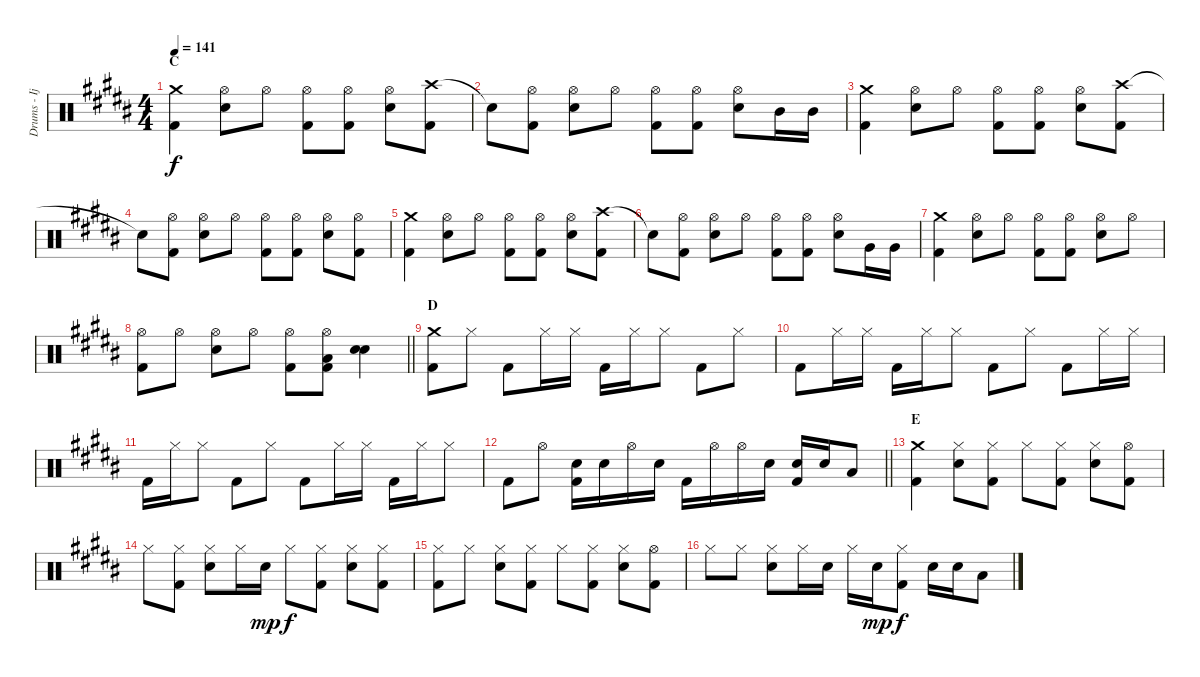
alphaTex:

\track ("Drums - Ijichi" "Drums - Ij") {instrument percussion}
\staff {score}
\articulation defaults
\ts (4 4)
\section ("" "C")
\tempo 141
\clef neutral
\ks b
("Crash medium (hit)" "Kick (hit) 2").4{dy f} ("Hi-Hat (open)" "Electric Snare (hit)").8 "Hi-Hat (open)".8 ("Hi-Hat (open)" "Kick (hit) 2").8 ("Hi-Hat (open)" "Kick (hit) 2").8 ("Hi-Hat (open)" "Electric Snare (hit)").8 ("Crash high (hit)" "Kick (hit) 2").8 |
"Snare (hit)"{t}.8 ("Hi-Hat (open)" "Kick (hit) 2").8 ("Hi-Hat (open)" "Electric Snare (hit)").8 "Hi-Hat (open)".8 ("Hi-Hat (open)" "Kick (hit) 2").8 ("Hi-Hat (open)" "Kick (hit) 2").8 ("Hi-Hat (open)" "Electric Snare (hit)").8 "Mid Tom (hit)".16 "Mid Tom (hit)".16 |
("Crash medium (hit)" "Kick (hit) 2").4 ("Hi-Hat (open)" "Electric Snare (hit)").8 "Hi-Hat (open)".8 ("Hi-Hat (open)" "Kick (hit) 2").8 ("Hi-Hat (open)" "Kick (hit) 2").8 ("Hi-Hat (open)" "Electric Snare (hit)").8 ("Crash high (hit)" "Kick (hit) 2").8 |
"Snare (hit)"{t}.8 ("Hi-Hat (open)" "Kick (hit) 2").8 ("Hi-Hat (open)" "Electric Snare (hit)").8 "Hi-Hat (open)".8 ("Hi-Hat (open)" "Kick (hit) 2").8 ("Hi-Hat (open)" "Kick (hit) 2").8 ("Hi-Hat (open)" "Electric Snare (hit)").8 ("Hi-Hat (open)" "Kick (hit) 2").8 |
("Crash medium (hit)" "Kick (hit) 2").4 ("Hi-Hat (open)" "Electric Snare (hit)").8 "Hi-Hat (open)".8 ("Hi-Hat (open)" "Kick (hit) 2").8 ("Hi-Hat (open)" "Kick (hit) 2").8 ("Hi-Hat (open)" "Electric Snare (hit)").8 ("Crash high (hit)" "Kick (hit) 2").8 |
"Snare (hit)"{t}.8 ("Hi-Hat (open)" "Kick (hit) 2").8 ("Hi-Hat (open)" "Electric Snare (hit)").8 "Hi-Hat (open)".8 ("Hi-Hat (open)" "Kick (hit) 2").8 ("Hi-Hat (open)" "Kick (hit) 2").8 ("Hi-Hat (open)" "Electric Snare (hit)").8 "Very Low Tom (hit)".16 "Very Low Tom (hit)".16 |
("Crash medium (hit)" "Kick (hit) 2").4 ("Hi-Hat (open)" "Electric Snare (hit)").8 "Hi-Hat (open)".8 ("Hi-Hat (open)" "Kick (hit) 2").8 ("Hi-Hat (open)" "Kick (hit) 2").8 ("Hi-Hat (open)" "Electric Snare (hit)").8 "Hi-Hat (open)".8 |
\barLineRight lightlight
("Hi-Hat (open)" "Kick (hit) 2").8 "Hi-Hat (open)".8 ("Hi-Hat (open)" "Electric Snare (hit)").8 "Hi-Hat (open)".8 ("Hi-Hat (open)" "Kick (hit) 2").8 ("Hi-Hat (open)" "Low Tom (hit)" "Kick (hit) 2").8 ("Electric Snare (hit)" "Electric Snare (hit)").4 |
\section ("" "D")
("Crash medium (hit)" "Kick (hit) 2").8 "Hi-Hat (closed)".8 "Kick (hit) 2".8 "Hi-Hat (closed)".16 "Hi-Hat (closed)".16 "Kick (hit) 2".16 "Hi-Hat (closed)".16 "Hi-Hat (closed)".8 "Kick (hit) 2".8 "Hi-Hat (closed)".8 |
"Kick (hit) 2".8 "Hi-Hat (closed)".16 "Hi-Hat (closed)".16 "Kick (hit) 2".16 "Hi-Hat (closed)".16 "Hi-Hat (closed)".8 "Kick (hit) 2".8 "Hi-Hat (closed)".8 "Kick (hit) 2".8 "Hi-Hat (closed)".16 "Hi-Hat (closed)".16 |
"Kick (hit) 2".16 "Hi-Hat (closed)".16 "Hi-Hat (closed)".8 "Kick (hit) 2".8 "Hi-Hat (closed)".8 "Kick (hit) 2".8 "Hi-Hat (closed)".16 "Hi-Hat (closed)".16 "Kick (hit) 2".16 "Hi-Hat (closed)".16 "Hi-Hat (closed)".8 |
\barLineRight lightlight "Kick (hit) 2".8 "Hi-Hat (open)".8
("Electric Snare (hit)" "Kick (hit) 2").16 "Electric Snare (hit)".16 "Hi-Hat (open)".16 "Electric Snare (hit)".16 "Kick (hit) 2".16 "Hi-Hat (open)".16 "Hi-Hat (open)".16 "Electric Snare (hit)".16 ("Electric Snare (hit)" "Kick (hit) 2").16 "Electric Snare (hit)".16 "Low Tom (hit)".8 |
\section ("" "E")
("Crash medium (hit)" "Kick (hit) 2").4 ("Hi-Hat (closed)" "Electric Snare (hit)").8 ("Hi-Hat (closed)" "Kick (hit) 2").8 "Hi-Hat (closed)".8 ("Hi-Hat (closed)" "Kick (hit) 2").8 ("Hi-Hat (closed)" "Electric Snare (hit)").8 ("Hi-Hat (open)" "Kick (hit) 2").8 |
"Hi-Hat (closed)".8 ("Hi-Hat (closed)" "Kick (hit) 2").8 ("Hi-Hat (closed)" "Electric Snare (hit)").8 "Hi-Hat (closed)".16 "Electric Snare (hit)".16{dy mp} "Hi-Hat (closed)".8{dy f} ("Hi-Hat (closed)" "Kick (hit) 2").8 ("Hi-Hat (closed)" "Electric Snare (hit)").8 ("Hi-Hat (closed)" "Kick (hit) 2").8 |
("Hi-Hat (closed)" "Kick (hit) 2").8 "Hi-Hat (closed)".8 ("Hi-Hat (closed)" "Electric Snare (hit)").8 ("Hi-Hat (closed)" "Kick (hit) 2").8 "Hi-Hat (closed)".8 ("Hi-Hat (closed)" "Kick (hit) 2").8 ("Hi-Hat (closed)" "Electric Snare (hit)").8 ("Hi-Hat (open)" "Kick (hit) 2").8 |
"Hi-Hat (closed)".8 "Hi-Hat (closed)".8 ("Hi-Hat (closed)" "Electric Snare (hit)").8 "Hi-Hat (closed)".16 "Electric Snare (hit)".16 "Hi-Hat (closed)".16 "Electric Snare (hit)".16{dy mp} ("Hi-Hat (closed)" "Kick (hit) 2").8{dy f} "Electric Snare (hit)".16 "Electric Snare (hit)".16 "Low Tom (hit)".8
